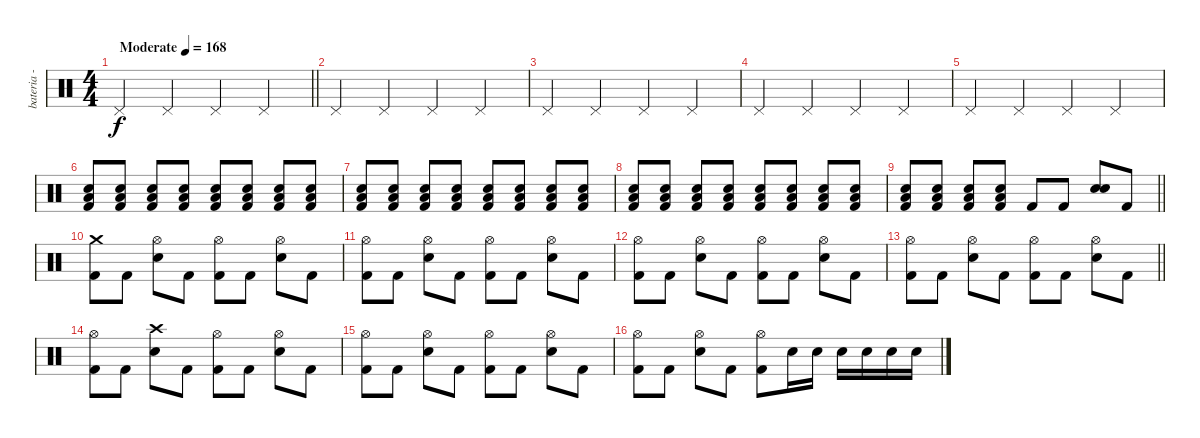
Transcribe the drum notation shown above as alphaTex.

\track ("bateria - drums" "bateria - ") {instrument percussion}
\staff {score}
\articulation defaults
\ts (4 4)
\tempo (168 "Moderate")
\clef neutral
\barLineRight lightlight
\ks c "Pedal Hi-Hat (hit)".4{dy f} "Pedal Hi-Hat (hit)".4 "Pedal Hi-Hat (hit)".4 "Pedal Hi-Hat (hit)".4
|
"Pedal Hi-Hat (hit)".4 "Pedal Hi-Hat (hit)".4 "Pedal Hi-Hat (hit)".4 "Pedal Hi-Hat (hit)".4 |
"Pedal Hi-Hat (hit)".4 "Pedal Hi-Hat (hit)".4 "Pedal Hi-Hat (hit)".4 "Pedal Hi-Hat (hit)".4 |
"Pedal Hi-Hat (hit)".4 "Pedal Hi-Hat (hit)".4 "Pedal Hi-Hat (hit)".4 "Pedal Hi-Hat (hit)".4 |
"Pedal Hi-Hat (hit)".4 "Pedal Hi-Hat (hit)".4 "Pedal Hi-Hat (hit)".4 "Pedal Hi-Hat (hit)".4 |
("Electric Snare (hit)" "Low Floor Tom (hit)" "Kick (hit) 2").8 ("Electric Snare (hit)" "Low Floor Tom (hit)" "Kick (hit) 2").8 ("Electric Snare (hit)" "Low Floor Tom (hit)" "Kick (hit) 2").8 ("Electric Snare (hit)" "Low Floor Tom (hit)" "Kick (hit) 2").8 ("Electric Snare (hit)" "Low Floor Tom (hit)" "Kick (hit) 2").8 ("Electric Snare (hit)" "Low Floor Tom (hit)" "Kick (hit) 2").8 ("Electric Snare (hit)" "Low Floor Tom (hit)" "Kick (hit) 2").8 ("Electric Snare (hit)" "Low Floor Tom (hit)" "Kick (hit) 2").8 |
("Electric Snare (hit)" "Low Floor Tom (hit)" "Kick (hit) 2").8 ("Electric Snare (hit)" "Low Floor Tom (hit)" "Kick (hit) 2").8 ("Electric Snare (hit)" "Low Floor Tom (hit)" "Kick (hit) 2").8 ("Electric Snare (hit)" "Low Floor Tom (hit)" "Kick (hit) 2").8 ("Electric Snare (hit)" "Low Floor Tom (hit)" "Kick (hit) 2").8 ("Electric Snare (hit)" "Low Floor Tom (hit)" "Kick (hit) 2").8 ("Electric Snare (hit)" "Low Floor Tom (hit)" "Kick (hit) 2").8 ("Electric Snare (hit)" "Low Floor Tom (hit)" "Kick (hit) 2").8 |
("Electric Snare (hit)" "Low Floor Tom (hit)" "Kick (hit) 2").8 ("Electric Snare (hit)" "Low Floor Tom (hit)" "Kick (hit) 2").8 ("Electric Snare (hit)" "Low Floor Tom (hit)" "Kick (hit) 2").8 ("Electric Snare (hit)" "Low Floor Tom (hit)" "Kick (hit) 2").8 ("Electric Snare (hit)" "Low Floor Tom (hit)" "Kick (hit) 2").8 ("Electric Snare (hit)" "Low Floor Tom (hit)" "Kick (hit) 2").8 ("Electric Snare (hit)" "Low Floor Tom (hit)" "Kick (hit) 2").8 ("Electric Snare (hit)" "Low Floor Tom (hit)" "Kick (hit) 2").8 |
\barLineRight lightlight
("Electric Snare (hit)" "Low Floor Tom (hit)" "Kick (hit) 2").8 ("Electric Snare (hit)" "Low Floor Tom (hit)" "Kick (hit) 2").8 ("Electric Snare (hit)" "Low Floor Tom (hit)" "Kick (hit) 2").8 ("Electric Snare (hit)" "Low Floor Tom (hit)" "Kick (hit) 2").8 "Kick (hit) 2".8 "Kick (hit) 2".8 ("Electric Snare (hit)" "Electric Snare (hit)").8{bd 240} "Kick (hit) 2".8 |
("Crash medium (hit)" "Kick (hit) 2").8 "Kick (hit) 2".8 ("Hi-Hat (open)" "Electric Snare (hit)").8 "Kick (hit) 2".8 ("Hi-Hat (open)" "Kick (hit) 2").8 "Kick (hit) 2".8 ("Hi-Hat (open)" "Electric Snare (hit)").8 "Kick (hit) 2".8 |
("Hi-Hat (open)" "Kick (hit) 2").8 "Kick (hit) 2".8 ("Hi-Hat (open)" "Electric Snare (hit)").8 "Kick (hit) 2".8 ("Hi-Hat (open)" "Kick (hit) 2").8 "Kick (hit) 2".8 ("Hi-Hat (open)" "Electric Snare (hit)").8 "Kick (hit) 2".8 |
("Hi-Hat (open)" "Kick (hit) 2").8 "Kick (hit) 2".8 ("Hi-Hat (open)" "Electric Snare (hit)").8 "Kick (hit) 2".8 ("Hi-Hat (open)" "Kick (hit) 2").8 "Kick (hit) 2".8 ("Hi-Hat (open)" "Electric Snare (hit)").8 "Kick (hit) 2".8 |
\barLineRight lightlight
("Hi-Hat (open)" "Kick (hit) 2").8 "Kick (hit) 2".8 ("Hi-Hat (open)" "Electric Snare (hit)").8 "Kick (hit) 2".8 ("Hi-Hat (open)" "Kick (hit) 2").8 "Kick (hit) 2".8 ("Hi-Hat (open)" "Electric Snare (hit)").8 "Kick (hit) 2".8 |
("Hi-Hat (open)" "Kick (hit) 2").8 "Kick (hit) 2".8 ("Crash high (hit)" "Electric Snare (hit)").8 "Kick (hit) 2".8 ("Hi-Hat (open)" "Kick (hit) 2").8 "Kick (hit) 2".8 ("Hi-Hat (open)" "Electric Snare (hit)").8 "Kick (hit) 2".8 |
("Hi-Hat (open)" "Kick (hit) 2").8 "Kick (hit) 2".8 ("Hi-Hat (open)" "Electric Snare (hit)").8 "Kick (hit) 2".8 ("Hi-Hat (open)" "Kick (hit) 2").8 "Kick (hit) 2".8 ("Hi-Hat (open)" "Electric Snare (hit)").8 "Kick (hit) 2".8 |
("Hi-Hat (open)" "Kick (hit) 2").8 "Kick (hit) 2".8 ("Hi-Hat (open)" "Electric Snare (hit)").8 "Kick (hit) 2".8 ("Hi-Hat (open)" "Kick (hit) 2").8 "Electric Snare (hit)".16 "Electric Snare (hit)".16 "Electric Snare (hit)".16 "Electric Snare (hit)".16 "Electric Snare (hit)".16 "Electric Snare (hit)".16
